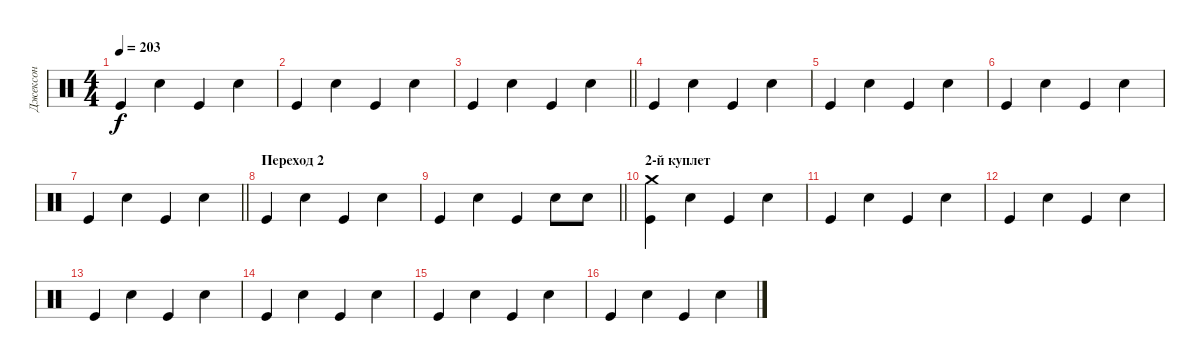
\track ("Джексон" "Джексон") {instrument percussion}
\staff {score}
\articulation defaults
\ts (4 4)
\tempo 203
\clef neutral
\ks c "Kick (hit)".4{dy f} "Snare (hit) 2".4 "Kick (hit)".4 "Snare (hit) 2".4
|
"Kick (hit)".4 "Snare (hit) 2".4 "Kick (hit)".4 "Snare (hit) 2".4 |
\barLineRight lightlight "Kick (hit)".4 "Snare (hit) 2".4 "Kick (hit)".4 "Snare (hit) 2".4
|
"Kick (hit)".4 "Snare (hit) 2".4 "Kick (hit)".4 "Snare (hit) 2".4 |
"Kick (hit)".4 "Snare (hit) 2".4 "Kick (hit)".4 "Snare (hit) 2".4 |
"Kick (hit)".4 "Snare (hit) 2".4 "Kick (hit)".4 "Snare (hit) 2".4 |
\barLineRight lightlight "Kick (hit)".4 "Snare (hit) 2".4 "Kick (hit)".4 "Snare (hit) 2".4
|
\section ("" "Переход 2")
"Kick (hit)".4 "Snare (hit) 2".4 "Kick (hit)".4 "Snare (hit) 2".4 |
\barLineRight lightlight "Kick (hit)".4 "Snare (hit) 2".4 "Kick (hit)".4 "Snare (hit) 2".8 "Snare (hit) 2".8
|
\section ("" "2-й куплет")
("Crash medium (hit)" "Kick (hit)").4 "Snare (hit) 2".4 "Kick (hit)".4 "Snare (hit) 2".4 |
"Kick (hit)".4 "Snare (hit) 2".4 "Kick (hit)".4 "Snare (hit) 2".4 |
"Kick (hit)".4 "Snare (hit) 2".4 "Kick (hit)".4 "Snare (hit) 2".4 |
"Kick (hit)".4 "Snare (hit) 2".4 "Kick (hit)".4 "Snare (hit) 2".4 |
"Kick (hit)".4 "Snare (hit) 2".4 "Kick (hit)".4 "Snare (hit) 2".4 |
"Kick (hit)".4 "Snare (hit) 2".4 "Kick (hit)".4 "Snare (hit) 2".4 |
"Kick (hit)".4 "Snare (hit) 2".4 "Kick (hit)".4 "Snare (hit) 2".4
